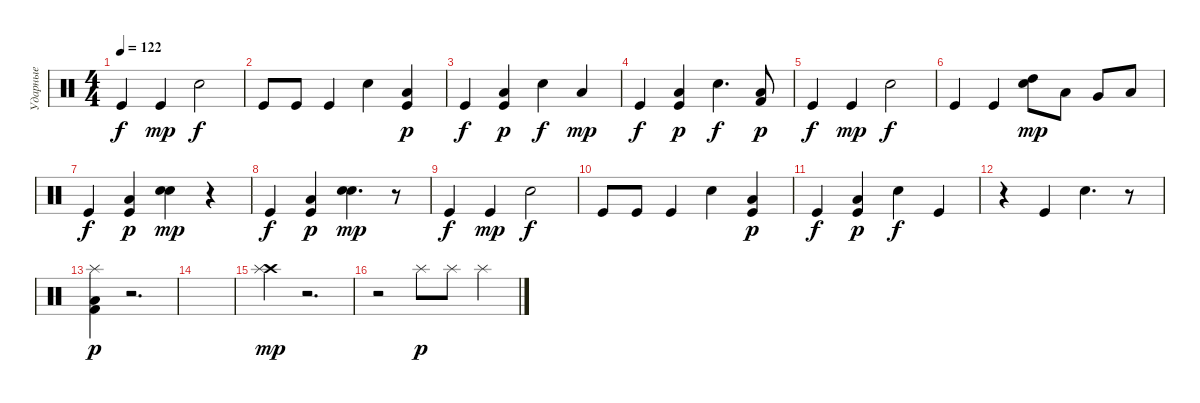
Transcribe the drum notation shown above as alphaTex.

\track ("Ударные" "Ударные") {instrument percussion}
\staff {score}
\articulation defaults
\ts (4 4)
\tempo 122
\clef neutral
\ks c "Kick (hit)".4{dy f} "Kick (hit)".4{dy mp} "Electric Snare (hit)".2{dy f}
|
"Kick (hit)".8 "Kick (hit)".8 "Kick (hit)".4 "Electric Snare (hit)".4 ("Low Floor Tom (hit)" "Kick (hit)").4{dy p} |
"Kick (hit)".4{dy f} ("Low Floor Tom (hit)" "Kick (hit)").4{dy p} "Electric Snare (hit)".4{dy f} "Low Floor Tom (hit)".4{dy mp} |
"Kick (hit)".4{dy f} ("Low Floor Tom (hit)" "Kick (hit)").4{dy p} "Electric Snare (hit)".4{d dy f} ("Low Floor Tom (hit)" "Kick (hit) 2").8{dy p} |
"Kick (hit)".4{dy f} "Kick (hit)".4{dy mp} "Electric Snare (hit)".2{dy f} |
"Kick (hit)".4 "Kick (hit)".4 ("High Tom (hit)" "Electric Snare (hit)").8{dy mp} "Low Tom (hit)".8 "Very Low Tom (hit)".8 "Low Floor Tom (hit)".8 |
"Kick (hit)".4{dy f} ("Low Floor Tom (hit)" "Kick (hit)").4{dy p} ("Electric Snare (hit)" "Snare (hit) 2").4{dy mp} r.4 |
"Kick (hit)".4{dy f} ("Low Floor Tom (hit)" "Kick (hit)").4{dy p} ("Electric Snare (hit)" "Snare (hit) 2").4{d dy mp} r.8 |
"Kick (hit)".4{dy f} "Kick (hit)".4{dy mp} "Electric Snare (hit)".2{dy f} |
"Kick (hit)".8 "Kick (hit)".8 "Kick (hit)".4 "Electric Snare (hit)".4 ("Low Floor Tom (hit)" "Kick (hit)").4{dy p} |
"Kick (hit)".4{dy f} ("Low Floor Tom (hit)" "Kick (hit)").4{dy p} "Electric Snare (hit)".4{dy f} "Kick (hit)".4 |
r.4 "Kick (hit)".4 "Electric Snare (hit)".4{d} r.8 |
("Splash (hit)" "Low Floor Tom (hit)" "Kick (hit) 2").4{dy p} r.2{d} |
|
("Crash high (hit)" "Splash (hit)").4{dy mp} r.2{d} |
r.2 "Splash (hit)".8{dy p} "Splash (hit)".8 "Splash (hit)".4
